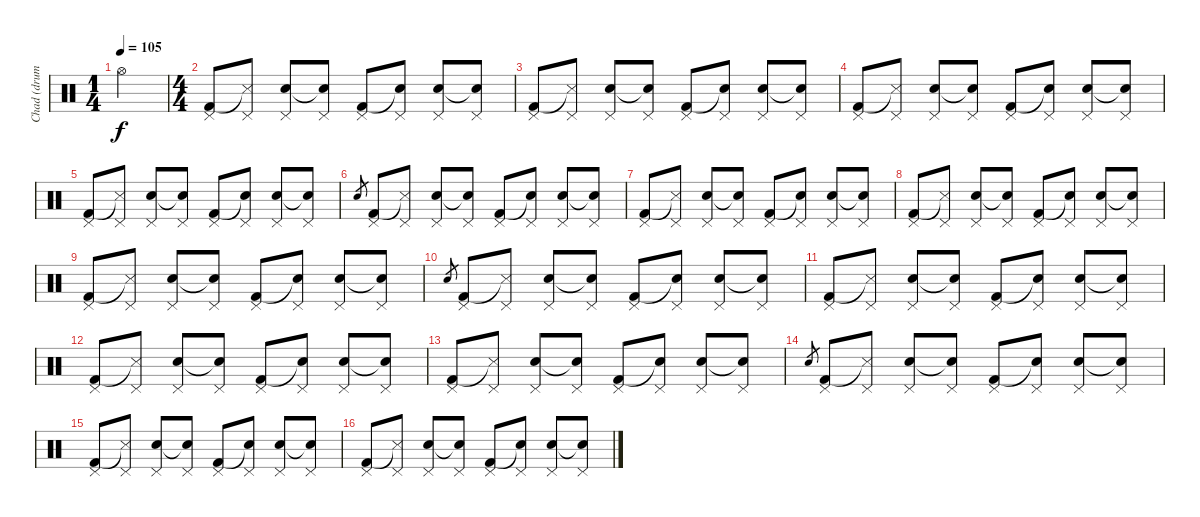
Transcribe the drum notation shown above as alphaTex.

\track ("Chad (drums)" "Chad (drum") {instrument percussion}
\staff {score}
\articulation defaults
\ts (1 4)
\tempo 105
\clef neutral
\ks c "Hi-Hat (open)".4{dy f}
|
\ts (4 4)
("Pedal Hi-Hat (hit)" "Kick (hit) 2").8 ("Pedal Hi-Hat (hit)" "Snare (side stick) 3"{t}).8 ("Pedal Hi-Hat (hit)" "Electric Snare (hit)").8 ("Pedal Hi-Hat (hit)" "Snare (hit)"{t}).8 ("Pedal Hi-Hat (hit)" "Kick (hit) 2").8 ("Pedal Hi-Hat (hit)" "Snare (hit)"{t}).8 ("Pedal Hi-Hat (hit)" "Electric Snare (hit)").8 ("Pedal Hi-Hat (hit)" "Snare (hit)"{t}).8 |
("Pedal Hi-Hat (hit)" "Kick (hit) 2").8 ("Pedal Hi-Hat (hit)" "Snare (side stick) 3"{t}).8 ("Pedal Hi-Hat (hit)" "Electric Snare (hit)").8 ("Pedal Hi-Hat (hit)" "Snare (hit)"{t}).8 ("Pedal Hi-Hat (hit)" "Kick (hit) 2").8 ("Pedal Hi-Hat (hit)" "Snare (hit)"{t}).8 ("Pedal Hi-Hat (hit)" "Electric Snare (hit)").8 ("Pedal Hi-Hat (hit)" "Snare (hit)"{t}).8 |
("Pedal Hi-Hat (hit)" "Kick (hit) 2").8 ("Pedal Hi-Hat (hit)" "Snare (side stick) 3"{t}).8 ("Pedal Hi-Hat (hit)" "Electric Snare (hit)").8 ("Pedal Hi-Hat (hit)" "Snare (hit)"{t}).8 ("Pedal Hi-Hat (hit)" "Kick (hit) 2").8 ("Pedal Hi-Hat (hit)" "Snare (hit)"{t}).8 ("Pedal Hi-Hat (hit)" "Electric Snare (hit)").8 ("Pedal Hi-Hat (hit)" "Snare (hit)"{t}).8 |
("Pedal Hi-Hat (hit)" "Kick (hit) 2").8 ("Pedal Hi-Hat (hit)" "Snare (side stick) 3"{t}).8 ("Pedal Hi-Hat (hit)" "Electric Snare (hit)").8 ("Pedal Hi-Hat (hit)" "Snare (hit)"{t}).8 ("Pedal Hi-Hat (hit)" "Kick (hit) 2").8 ("Pedal Hi-Hat (hit)" "Snare (hit)"{t}).8 ("Pedal Hi-Hat (hit)" "Electric Snare (hit)").8 ("Pedal Hi-Hat (hit)" "Snare (hit)"{t}).8 |
"Electric Snare (hit)".8{gr} ("Pedal Hi-Hat (hit)" "Kick (hit) 2").8 ("Pedal Hi-Hat (hit)" "Snare (side stick) 3"{t}).8 ("Pedal Hi-Hat (hit)" "Electric Snare (hit)").8 ("Pedal Hi-Hat (hit)" "Snare (hit)"{t}).8 ("Pedal Hi-Hat (hit)" "Kick (hit) 2").8 ("Pedal Hi-Hat (hit)" "Snare (hit)"{t}).8 ("Pedal Hi-Hat (hit)" "Electric Snare (hit)").8 ("Pedal Hi-Hat (hit)" "Snare (hit)"{t}).8 |
("Pedal Hi-Hat (hit)" "Kick (hit) 2").8 ("Pedal Hi-Hat (hit)" "Snare (side stick) 3"{t}).8 ("Pedal Hi-Hat (hit)" "Electric Snare (hit)").8 ("Pedal Hi-Hat (hit)" "Snare (hit)"{t}).8 ("Pedal Hi-Hat (hit)" "Kick (hit) 2").8 ("Pedal Hi-Hat (hit)" "Snare (hit)"{t}).8 ("Pedal Hi-Hat (hit)" "Electric Snare (hit)").8 ("Pedal Hi-Hat (hit)" "Snare (hit)"{t}).8 |
("Pedal Hi-Hat (hit)" "Kick (hit) 2").8 ("Pedal Hi-Hat (hit)" "Snare (side stick) 3"{t}).8 ("Pedal Hi-Hat (hit)" "Electric Snare (hit)").8 ("Pedal Hi-Hat (hit)" "Snare (hit)"{t}).8 ("Pedal Hi-Hat (hit)" "Kick (hit) 2").8 ("Pedal Hi-Hat (hit)" "Snare (hit)"{t}).8 ("Pedal Hi-Hat (hit)" "Electric Snare (hit)").8 ("Pedal Hi-Hat (hit)" "Snare (hit)"{t}).8 |
("Pedal Hi-Hat (hit)" "Kick (hit) 2").8 ("Pedal Hi-Hat (hit)" "Snare (side stick) 3"{t}).8 ("Pedal Hi-Hat (hit)" "Electric Snare (hit)").8 ("Pedal Hi-Hat (hit)" "Snare (hit)"{t}).8 ("Pedal Hi-Hat (hit)" "Kick (hit) 2").8 ("Pedal Hi-Hat (hit)" "Snare (hit)"{t}).8 ("Pedal Hi-Hat (hit)" "Electric Snare (hit)").8 ("Pedal Hi-Hat (hit)" "Snare (hit)"{t}).8 |
"Electric Snare (hit)".8{gr} ("Pedal Hi-Hat (hit)" "Kick (hit) 2").8 ("Pedal Hi-Hat (hit)" "Snare (side stick) 3"{t}).8 ("Pedal Hi-Hat (hit)" "Electric Snare (hit)").8 ("Pedal Hi-Hat (hit)" "Snare (hit)"{t}).8 ("Pedal Hi-Hat (hit)" "Kick (hit) 2").8 ("Pedal Hi-Hat (hit)" "Snare (hit)"{t}).8 ("Pedal Hi-Hat (hit)" "Electric Snare (hit)").8 ("Pedal Hi-Hat (hit)" "Snare (hit)"{t}).8 |
("Pedal Hi-Hat (hit)" "Kick (hit) 2").8 ("Pedal Hi-Hat (hit)" "Snare (side stick) 3"{t}).8 ("Pedal Hi-Hat (hit)" "Electric Snare (hit)").8 ("Pedal Hi-Hat (hit)" "Snare (hit)"{t}).8 ("Pedal Hi-Hat (hit)" "Kick (hit) 2").8 ("Pedal Hi-Hat (hit)" "Snare (hit)"{t}).8 ("Pedal Hi-Hat (hit)" "Electric Snare (hit)").8 ("Pedal Hi-Hat (hit)" "Snare (hit)"{t}).8 |
("Pedal Hi-Hat (hit)" "Kick (hit) 2").8 ("Pedal Hi-Hat (hit)" "Snare (side stick) 3"{t}).8 ("Pedal Hi-Hat (hit)" "Electric Snare (hit)").8 ("Pedal Hi-Hat (hit)" "Snare (hit)"{t}).8 ("Pedal Hi-Hat (hit)" "Kick (hit) 2").8 ("Pedal Hi-Hat (hit)" "Snare (hit)"{t}).8 ("Pedal Hi-Hat (hit)" "Electric Snare (hit)").8 ("Pedal Hi-Hat (hit)" "Snare (hit)"{t}).8 |
("Pedal Hi-Hat (hit)" "Kick (hit) 2").8 ("Pedal Hi-Hat (hit)" "Snare (side stick) 3"{t}).8 ("Pedal Hi-Hat (hit)" "Electric Snare (hit)").8 ("Pedal Hi-Hat (hit)" "Snare (hit)"{t}).8 ("Pedal Hi-Hat (hit)" "Kick (hit) 2").8 ("Pedal Hi-Hat (hit)" "Snare (hit)"{t}).8 ("Pedal Hi-Hat (hit)" "Electric Snare (hit)").8 ("Pedal Hi-Hat (hit)" "Snare (hit)"{t}).8 |
"Electric Snare (hit)".8{gr} ("Pedal Hi-Hat (hit)" "Kick (hit) 2").8 ("Pedal Hi-Hat (hit)" "Snare (side stick) 3"{t}).8 ("Pedal Hi-Hat (hit)" "Electric Snare (hit)").8 ("Pedal Hi-Hat (hit)" "Snare (hit)"{t}).8 ("Pedal Hi-Hat (hit)" "Kick (hit) 2").8 ("Pedal Hi-Hat (hit)" "Snare (hit)"{t}).8 ("Pedal Hi-Hat (hit)" "Electric Snare (hit)").8 ("Pedal Hi-Hat (hit)" "Snare (hit)"{t}).8 |
("Pedal Hi-Hat (hit)" "Kick (hit) 2").8 ("Pedal Hi-Hat (hit)" "Snare (side stick) 3"{t}).8 ("Pedal Hi-Hat (hit)" "Electric Snare (hit)").8 ("Pedal Hi-Hat (hit)" "Snare (hit)"{t}).8 ("Pedal Hi-Hat (hit)" "Kick (hit) 2").8 ("Pedal Hi-Hat (hit)" "Snare (hit)"{t}).8 ("Pedal Hi-Hat (hit)" "Electric Snare (hit)").8 ("Pedal Hi-Hat (hit)" "Snare (hit)"{t}).8 |
("Pedal Hi-Hat (hit)" "Kick (hit) 2").8 ("Pedal Hi-Hat (hit)" "Snare (side stick) 3"{t}).8 ("Pedal Hi-Hat (hit)" "Electric Snare (hit)").8 ("Pedal Hi-Hat (hit)" "Snare (hit)"{t}).8 ("Pedal Hi-Hat (hit)" "Kick (hit) 2").8 ("Pedal Hi-Hat (hit)" "Snare (hit)"{t}).8 ("Pedal Hi-Hat (hit)" "Electric Snare (hit)").8 ("Pedal Hi-Hat (hit)" "Snare (hit)"{t}).8
